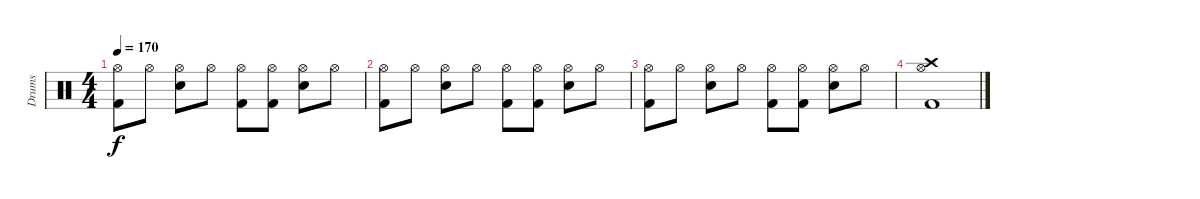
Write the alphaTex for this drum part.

\track ("Drums" "Drums") {instrument percussion}
\staff {score}
\articulation defaults
\ts (4 4)
\tempo 170
\clef neutral
\ks c
("Hi-Hat (open)" "Kick (hit) 2").8{dy f} "Hi-Hat (open)".8 ("Hi-Hat (open)" "Snare (hit) 2").8 "Hi-Hat (open)".8 ("Hi-Hat (open)" "Kick (hit) 2").8 ("Hi-Hat (open)" "Kick (hit) 2").8 ("Hi-Hat (open)" "Snare (hit) 2").8 "Hi-Hat (open)".8 |
("Hi-Hat (open)" "Kick (hit) 2").8 "Hi-Hat (open)".8 ("Hi-Hat (open)" "Snare (hit) 2").8 "Hi-Hat (open)".8 ("Hi-Hat (open)" "Kick (hit) 2").8 ("Hi-Hat (open)" "Kick (hit) 2").8 ("Hi-Hat (open)" "Snare (hit) 2").8 "Hi-Hat (open)".8 |
("Hi-Hat (open)" "Kick (hit) 2").8 "Hi-Hat (open)".8 ("Hi-Hat (open)" "Snare (hit) 2").8 "Hi-Hat (open)".8 ("Hi-Hat (open)" "Kick (hit) 2").8 ("Hi-Hat (open)" "Kick (hit) 2").8 ("Hi-Hat (open)" "Snare (hit) 2").8 "Hi-Hat (open)".8 |
("Hi-Hat (open)" "Kick (hit) 2" "Crash high (hit)").1
